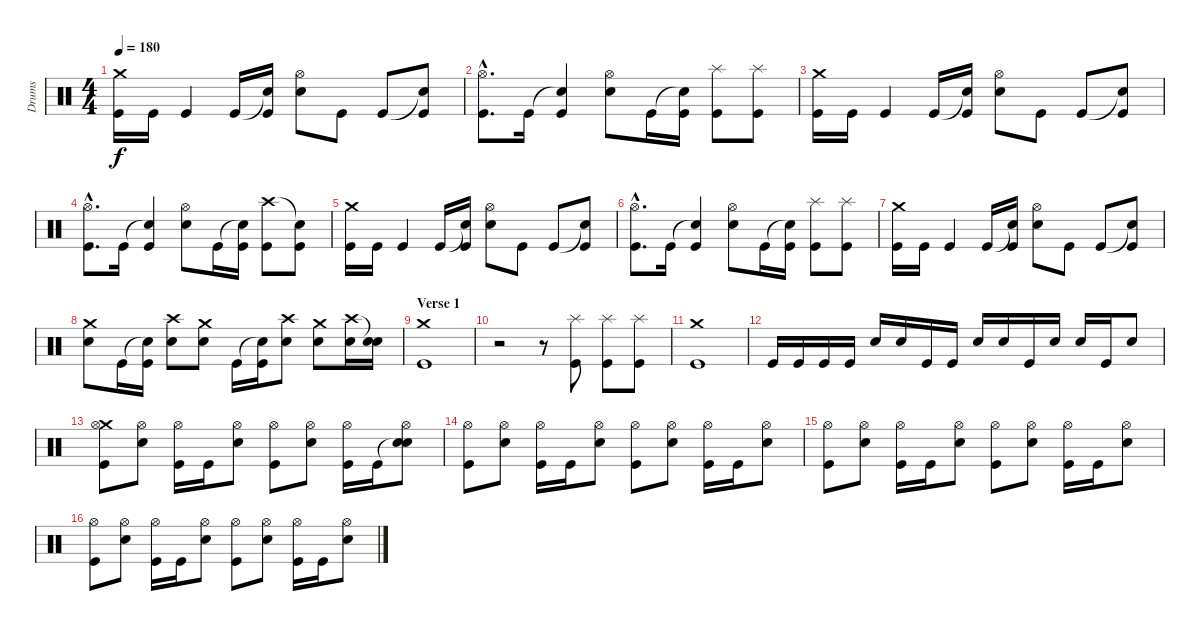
\track ("Drums" "Drums") {instrument percussion}
\staff {score}
\articulation defaults
\ts (4 4)
\tempo 180
\clef neutral
\ks c
("Crash medium (hit)" "Kick (hit)").16{dy f} "Kick (hit)".16 "Kick (hit)".4 "Kick (hit)".16 ("Snare (hit)"{t} "Kick (hit)").16 ("Hi-Hat (open)" "Electric Snare (hit)").8 "Kick (hit)".8 "Kick (hit)".8 ("Snare (hit)"{t} "Kick (hit)").8 |
("Hi-Hat (open)"{hac} "Kick (hit)"{hac}).8{d} "Kick (hit)".16 ("Snare (hit)"{t} "Kick (hit)").4 ("Hi-Hat (open)" "Electric Snare (hit)").8 "Kick (hit)".16 ("Snare (hit)"{t} "Kick (hit)").16 ("Splash (hit)" "Kick (hit)").8 ("Splash (hit)" "Kick (hit)").8 |
("Crash medium (hit)" "Kick (hit)").16 "Kick (hit)".16 "Kick (hit)".4 "Kick (hit)".16 ("Snare (hit)"{t} "Kick (hit)").16 ("Hi-Hat (open)" "Electric Snare (hit)").8 "Kick (hit)".8 "Kick (hit)".8 ("Snare (hit)"{t} "Kick (hit)").8 |
("Hi-Hat (open)"{hac} "Kick (hit)"{hac}).8{d} "Kick (hit)".16 ("Snare (hit)"{t} "Kick (hit)").4 ("Hi-Hat (open)" "Electric Snare (hit)").8 "Kick (hit)".16 ("Snare (hit)"{t} "Kick (hit)").16 ("Crash high (hit)" "Kick (hit)").8 ("Snare (hit)"{t} "Kick (hit)").8 |
("Crash medium (hit)" "Kick (hit)").16 "Kick (hit)".16 "Kick (hit)".4 "Kick (hit)".16 ("Snare (hit)"{t} "Kick (hit)").16 ("Hi-Hat (open)" "Electric Snare (hit)").8 "Kick (hit)".8 "Kick (hit)".8 ("Snare (hit)"{t} "Kick (hit)").8 |
("Hi-Hat (open)"{hac} "Kick (hit)"{hac}).8{d} "Kick (hit)".16 ("Snare (hit)"{t} "Kick (hit)").4 ("Hi-Hat (open)" "Electric Snare (hit)").8 "Kick (hit)".16 ("Snare (hit)"{t} "Kick (hit)").16 ("Splash (hit)" "Kick (hit)").8 ("Splash (hit)" "Kick (hit)").8 |
("Crash medium (hit)" "Kick (hit)").16 "Kick (hit)".16 "Kick (hit)".4 "Kick (hit)".16 ("Snare (hit)"{t} "Kick (hit)").16 ("Hi-Hat (open)" "Electric Snare (hit)").8 "Kick (hit)".8 "Kick (hit)".8 ("Snare (hit)"{t} "Kick (hit)").8 |
("Crash medium (hit)" "Electric Snare (hit)").8 "Kick (hit)".16 ("Snare (hit)"{t} "Kick (hit)").16 ("Crash high (hit)" "Electric Snare (hit)").8 ("Crash medium (hit)" "Electric Snare (hit)").8 "Kick (hit)".16 ("Snare (hit)"{t} "Kick (hit)").16 ("Crash high (hit)" "Electric Snare (hit)").8 ("Crash medium (hit)" "Electric Snare (hit)").8 ("Crash high (hit)" "Electric Snare (hit)").16 ("Snare (hit)"{t} "Electric Snare (hit)").16 |
\section ("" "Verse 1")
("Crash medium (hit)" "Kick (hit)").1 |
r.2 r.8 ("Splash (hit)" "Kick (hit)").8 ("Splash (hit)" "Kick (hit)").8 ("Splash (hit)" "Kick (hit)").8 |
("Crash medium (hit)" "Kick (hit)").1 |
"Kick (hit)".16 "Kick (hit)".16 "Kick (hit)".16 "Kick (hit)".16 "Electric Snare (hit)".16 "Electric Snare (hit)".16 "Kick (hit)".16 "Kick (hit)".16 "Electric Snare (hit)".16 "Electric Snare (hit)".16 "Kick (hit)".16 "Electric Snare (hit)".16 "Electric Snare (hit)".16 "Kick (hit)".16 "Electric Snare (hit)".8 |
("Crash medium (hit)" "Hi-Hat (open)" "Kick (hit)").8 ("Hi-Hat (open)" "Electric Snare (hit)").8 ("Hi-Hat (open)" "Kick (hit)").16 "Kick (hit)".16 ("Hi-Hat (open)" "Electric Snare (hit)").8 ("Hi-Hat (open)" "Kick (hit)").8 ("Hi-Hat (open)" "Electric Snare (hit)").8 ("Hi-Hat (open)" "Kick (hit)").16 "Kick (hit)".16 ("Snare (hit)"{t} "Hi-Hat (open)" "Electric Snare (hit)").8 |
("Hi-Hat (open)" "Kick (hit)").8 ("Hi-Hat (open)" "Electric Snare (hit)").8 ("Hi-Hat (open)" "Kick (hit)").16 "Kick (hit)".16 ("Hi-Hat (open)" "Electric Snare (hit)").8 ("Hi-Hat (open)" "Kick (hit)").8 ("Hi-Hat (open)" "Electric Snare (hit)").8 ("Hi-Hat (open)" "Kick (hit)").16 "Kick (hit)".16 ("Hi-Hat (open)" "Electric Snare (hit)").8 |
("Hi-Hat (open)" "Kick (hit)").8 ("Hi-Hat (open)" "Electric Snare (hit)").8 ("Hi-Hat (open)" "Kick (hit)").16 "Kick (hit)".16 ("Hi-Hat (open)" "Electric Snare (hit)").8 ("Hi-Hat (open)" "Kick (hit)").8 ("Hi-Hat (open)" "Electric Snare (hit)").8 ("Hi-Hat (open)" "Kick (hit)").16 "Kick (hit)".16 ("Hi-Hat (open)" "Electric Snare (hit)").8 |
("Hi-Hat (open)" "Kick (hit)").8 ("Hi-Hat (open)" "Electric Snare (hit)").8 ("Hi-Hat (open)" "Kick (hit)").16 "Kick (hit)".16 ("Hi-Hat (open)" "Electric Snare (hit)").8 ("Hi-Hat (open)" "Kick (hit)").8 ("Hi-Hat (open)" "Electric Snare (hit)").8 ("Hi-Hat (open)" "Kick (hit)").16 "Kick (hit)".16 ("Hi-Hat (open)" "Electric Snare (hit)").8
